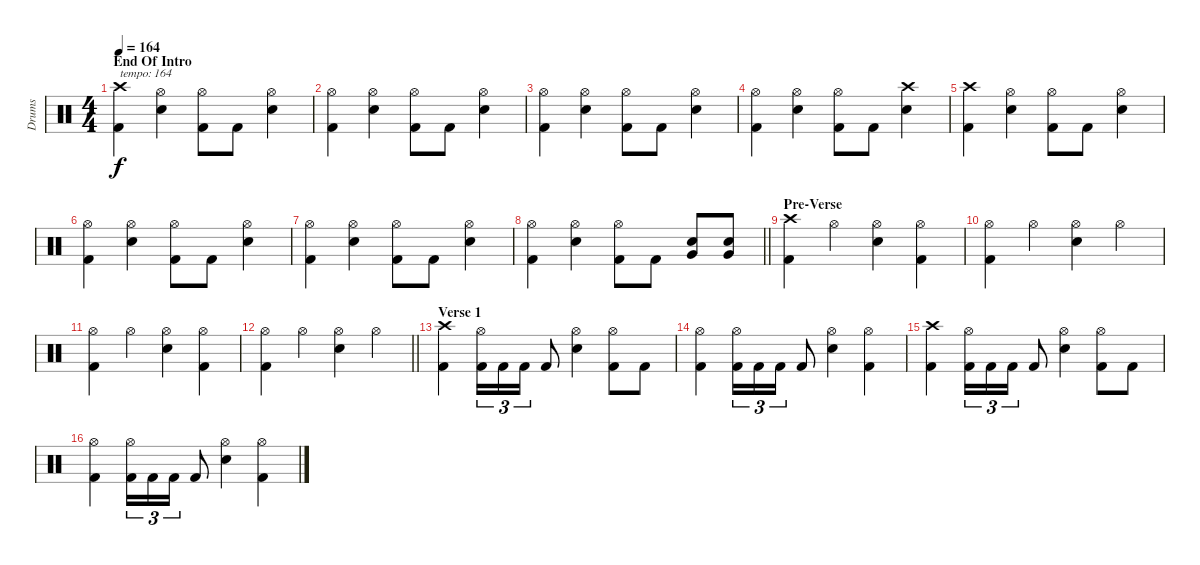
\track ("Drums" "Drums") {instrument percussion}
\staff {score}
\articulation defaults
\ts (4 4)
\section ("" "End Of Intro")
\tempo 164
\clef neutral
\ks c
("Crash high (hit)" "Kick (hit) 2").4{txt "tempo: 164" dy f} ("Hi-Hat (open)" "Snare (hit) 2").4 ("Hi-Hat (open)" "Kick (hit) 2").8 "Kick (hit) 2".8 ("Hi-Hat (open)" "Snare (hit) 2").4 |
("Hi-Hat (open)" "Kick (hit) 2").4 ("Hi-Hat (open)" "Snare (hit) 2").4 ("Hi-Hat (open)" "Kick (hit) 2").8 "Kick (hit) 2".8 ("Hi-Hat (open)" "Snare (hit) 2").4 |
("Hi-Hat (open)" "Kick (hit) 2").4 ("Hi-Hat (open)" "Snare (hit) 2").4 ("Hi-Hat (open)" "Kick (hit) 2").8 "Kick (hit) 2".8 ("Hi-Hat (open)" "Snare (hit) 2").4 |
("Hi-Hat (open)" "Kick (hit) 2").4 ("Hi-Hat (open)" "Snare (hit) 2").4 ("Hi-Hat (open)" "Kick (hit) 2").8 "Kick (hit) 2".8 ("Crash high (hit)" "Snare (hit) 2").4 |
("Crash high (hit)" "Kick (hit) 2").4 ("Hi-Hat (open)" "Snare (hit) 2").4 ("Hi-Hat (open)" "Kick (hit) 2").8 "Kick (hit) 2".8 ("Hi-Hat (open)" "Snare (hit) 2").4 |
("Hi-Hat (open)" "Kick (hit) 2").4 ("Hi-Hat (open)" "Snare (hit) 2").4 ("Hi-Hat (open)" "Kick (hit) 2").8 "Kick (hit) 2".8 ("Hi-Hat (open)" "Snare (hit) 2").4 |
("Hi-Hat (open)" "Kick (hit) 2").4 ("Hi-Hat (open)" "Snare (hit) 2").4 ("Hi-Hat (open)" "Kick (hit) 2").8 "Kick (hit) 2".8 ("Hi-Hat (open)" "Snare (hit) 2").4 |
\barLineRight lightlight
("Hi-Hat (open)" "Kick (hit) 2").4 ("Hi-Hat (open)" "Snare (hit) 2").4 ("Hi-Hat (open)" "Kick (hit) 2").8 "Kick (hit) 2".8 ("Very Low Tom (hit)" "Snare (hit) 2").8 ("Very Low Tom (hit)" "Snare (hit) 2").8 |
\section ("" "Pre-Verse")
("Crash high (hit)" "Kick (hit) 2").4 "Hi-Hat (open)".4 ("Hi-Hat (open)" "Snare (hit) 2").4 ("Hi-Hat (open)" "Kick (hit) 2").4 |
("Hi-Hat (open)" "Kick (hit) 2").4 "Hi-Hat (open)".4 ("Hi-Hat (open)" "Snare (hit) 2").4 "Hi-Hat (open)".4 |
("Hi-Hat (open)" "Kick (hit) 2").4 "Hi-Hat (open)".4 ("Hi-Hat (open)" "Snare (hit) 2").4 ("Hi-Hat (open)" "Kick (hit) 2").4 |
\barLineRight lightlight
("Hi-Hat (open)" "Kick (hit) 2").4 "Hi-Hat (open)".4 ("Hi-Hat (open)" "Snare (hit) 2").4 "Hi-Hat (open)".4 |
\section ("" "Verse 1")
("Crash high (hit)" "Kick (hit) 2").4 ("Hi-Hat (open)" "Kick (hit) 2").16{tu (3 2)} "Kick (hit) 2".16{tu (3 2)} "Kick (hit) 2".16{tu (3 2)} "Kick (hit) 2".8 ("Hi-Hat (open)" "Snare (hit) 2").4 ("Hi-Hat (open)" "Kick (hit) 2").8 "Kick (hit) 2".8 |
("Hi-Hat (open)" "Kick (hit) 2").4 ("Hi-Hat (open)" "Kick (hit) 2").16{tu (3 2)} "Kick (hit) 2".16{tu (3 2)} "Kick (hit) 2".16{tu (3 2)} "Kick (hit) 2".8 ("Hi-Hat (open)" "Snare (hit) 2").4 ("Hi-Hat (open)" "Kick (hit) 2").4 |
("Crash high (hit)" "Kick (hit) 2").4 ("Hi-Hat (open)" "Kick (hit) 2").16{tu (3 2)} "Kick (hit) 2".16{tu (3 2)} "Kick (hit) 2".16{tu (3 2)} "Kick (hit) 2".8 ("Hi-Hat (open)" "Snare (hit) 2").4 ("Hi-Hat (open)" "Kick (hit) 2").8 "Kick (hit) 2".8 |
("Hi-Hat (open)" "Kick (hit) 2").4 ("Hi-Hat (open)" "Kick (hit) 2").16{tu (3 2)} "Kick (hit) 2".16{tu (3 2)} "Kick (hit) 2".16{tu (3 2)} "Kick (hit) 2".8 ("Hi-Hat (open)" "Snare (hit) 2").4 ("Hi-Hat (open)" "Kick (hit) 2").4
